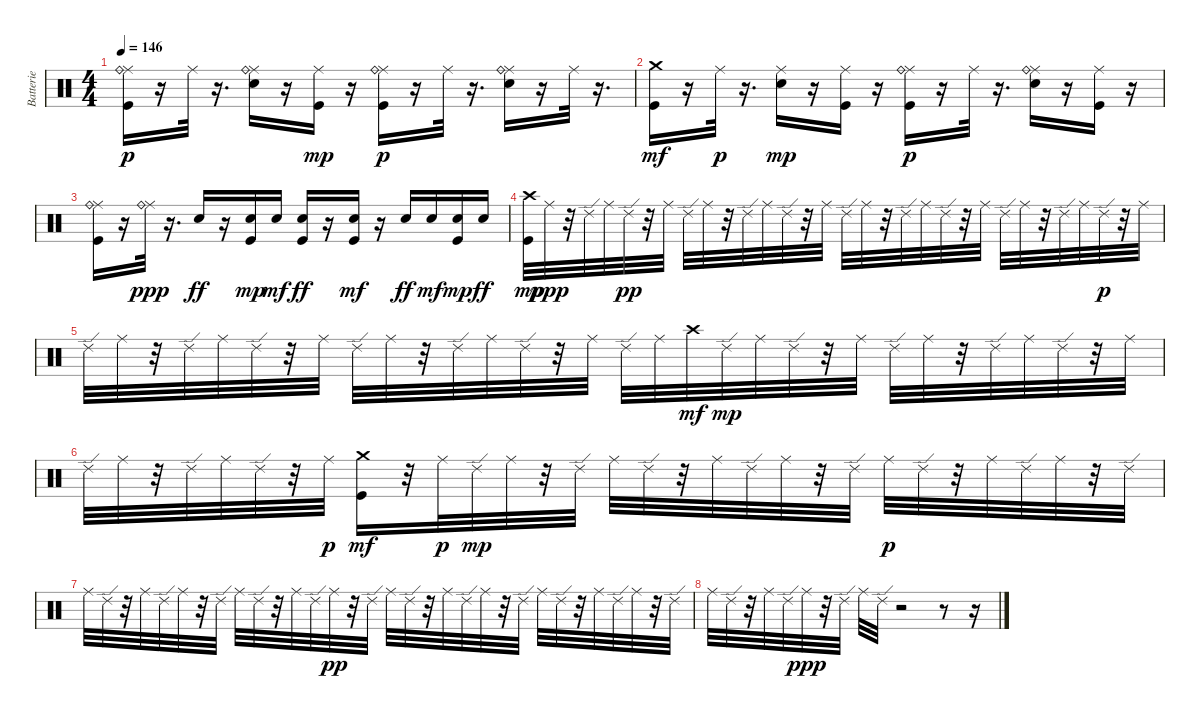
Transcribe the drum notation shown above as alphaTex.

\track ("Batterie" "Batterie") {instrument percussion}
\staff {score}
\articulation defaults
\ts (4 4)
\tempo 146
\clef neutral
\ks c
("Kick (hit)" "Ride (middle)" "Ride (bell)").16{dy p} r.16 "Ride (middle)".32 r.16{d} ("Electric Snare (hit)" "Ride (middle)" "Ride (bell)").16 r.16 ("Kick (hit)" "Ride (middle)").16{dy mp} r.16 ("Kick (hit)" "Ride (middle)" "Ride (bell)").16{dy p} r.16 "Ride (middle)".32 r.16{d} ("Electric Snare (hit)" "Ride (middle)" "Ride (bell)").16 r.16 "Ride (middle)".32 r.16{d} |
("Kick (hit)" "Crash medium (hit)").16{dy mf} r.16 "Ride (middle)".32{dy p} r.16{d} ("Electric Snare (hit)" "Ride (middle)").16{dy mp} r.16 ("Kick (hit)" "Ride (middle)").16 r.16 ("Kick (hit)" "Ride (middle)" "Ride (bell)").16{dy p} r.16 "Ride (middle)".32 r.16{d} ("Electric Snare (hit)" "Ride (middle)" "Ride (bell)").16 r.16 ("Kick (hit)" "Ride (middle)").16 r.16 |
("Kick (hit)" "Ride (middle)" "Ride (bell)").16 r.16 ("Ride (middle)" "Ride (bell)").32{dy ppp} r.16{d} "Electric Snare (hit)".16{dy ff} r.16 ("Kick (hit)" "Electric Snare (hit)").16{dy mp} "Electric Snare (hit)".16{dy mf} ("Kick (hit)" "Electric Snare (hit)").16{dy ff} r.16 ("Kick (hit)" "Electric Snare (hit)").16{dy mf} r.16 "Electric Snare (hit)".16{dy ff} "Electric Snare (hit)".16{dy mf} ("Kick (hit)" "Electric Snare (hit)").16{dy mp} "Electric Snare (hit)".16{dy ff} |
("Kick (hit)" "Crash high (hit)").32{dy mp} "Ride (middle)".32{dy ppp} r.32 "Ride (edge) 2".32 "Ride (middle)".32 "Ride (edge) 2".32{dy pp} r.32 "Ride (middle)".32 "Ride (edge) 2".32 "Ride (middle)".32 r.32 "Ride (edge) 2".32 "Ride (middle)".32 "Ride (edge) 2".32 r.32 "Ride (middle)".32 "Ride (edge) 2".32 "Ride (middle)".32 r.32 "Ride (edge) 2".32 "Ride (middle)".32 "Ride (edge) 2".32 r.32 "Ride (middle)".32 "Ride (edge) 2".32 "Ride (middle)".32 r.32 "Ride (edge) 2".32 "Ride (middle)".32 "Ride (edge) 2".32{dy p} r.32 "Ride (middle)".32 |
"Ride (edge) 2".32 "Ride (middle)".32 r.32 "Ride (edge) 2".32 "Ride (middle)".32 "Ride (edge) 2".32 r.32 "Ride (middle)".32 "Ride (edge) 2".32 "Ride (middle)".32 r.32 "Ride (edge) 2".32 "Ride (middle)".32 "Ride (edge) 2".32 r.32 "Ride (middle)".32 "Ride (edge) 2".32 "Ride (middle)".32 "Crash high (hit)".32{dy mf} "Ride (edge) 2".32{dy mp} "Ride (middle)".32 "Ride (edge) 2".32 r.32 "Ride (middle)".32 "Ride (edge) 2".32 "Ride (middle)".32 r.32 "Ride (edge) 2".32 "Ride (middle)".32 "Ride (edge) 2".32 r.32 "Ride (middle)".32 |
"Ride (edge) 2".32 "Ride (middle)".32 r.32 "Ride (edge) 2".32 "Ride (middle)".32 "Ride (edge) 2".32 r.32 "Ride (middle)".32{dy p} ("Kick (hit)" "Crash medium (hit)").16{dy mf} r.32 "Ride (middle)".32{dy p} "Ride (edge) 2".32{dy mp} "Ride (middle)".32 r.32 "Ride (edge) 2".32 "Ride (middle)".32 "Ride (edge) 2".32 r.32 "Ride (middle)".32 "Ride (edge) 2".32 "Ride (middle)".32 r.32 "Ride (edge) 2".32 "Ride (middle)".32{dy p} "Ride (edge) 2".32 r.32 "Ride (middle)".32 "Ride (edge) 2".32 "Ride (middle)".32 r.32 "Ride (edge) 2".32 |
"Ride (middle)".32 "Ride (edge) 2".32 r.32 "Ride (middle)".32 "Ride (edge) 2".32 "Ride (middle)".32 r.32 "Ride (edge) 2".32 "Ride (middle)".32 "Ride (edge) 2".32 r.32 "Ride (middle)".32 "Ride (edge) 2".32 "Ride (middle)".32{dy pp} r.32 "Ride (edge) 2".32 "Ride (middle)".32 "Ride (edge) 2".32 r.32 "Ride (middle)".32 "Ride (edge) 2".32 "Ride (middle)".32 r.32 "Ride (edge) 2".32 "Ride (middle)".32 "Ride (edge) 2".32 r.32 "Ride (middle)".32 "Ride (edge) 2".32 "Ride (middle)".32 r.32 "Ride (edge) 2".32 |
"Ride (middle)".32 "Ride (edge) 2".32 r.32 "Ride (middle)".32 "Ride (edge) 2".32 "Ride (middle)".32{dy ppp} r.32 "Ride (edge) 2".32 "Ride (middle)".32 "Ride (edge) 2".32 r.2 r.8 r.16
